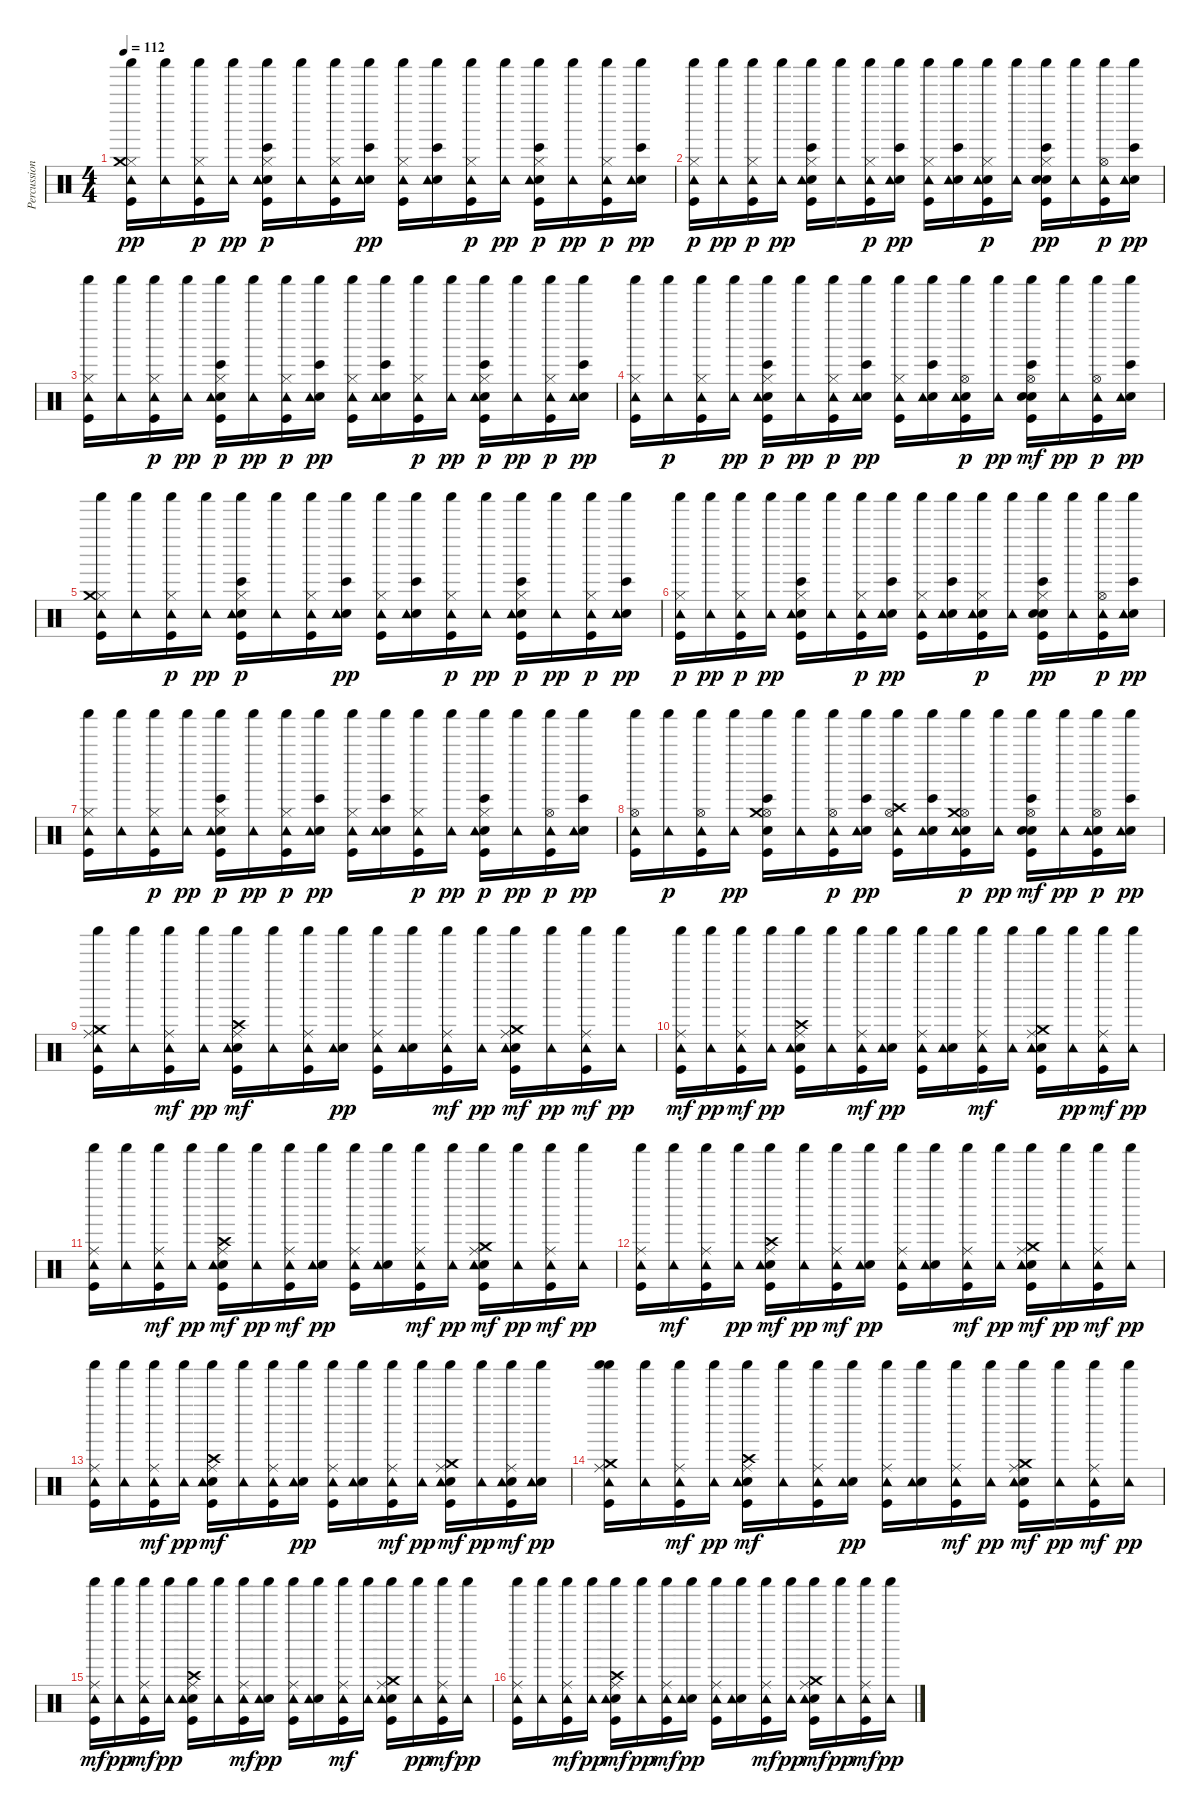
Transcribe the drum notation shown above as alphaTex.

\track ("Percussioni" "Percussion") {instrument percussion}
\staff {score}
\articulation defaults
\ts (4 4)
\tempo 112
\clef neutral
\ks c
("Kick (hit)" "Hi-Hat (closed)" "Tambourine (hit)" "Crash medium (hit)" "Shaker (hit)").16{dy pp} ("Tambourine (hit)" "Shaker (hit)").16 ("Kick (hit)" "Hi-Hat (closed)" "Shaker (hit)" "Tambourine (hit)").16{dy p} ("Tambourine (hit)" "Shaker (hit)").16{dy pp} ("Bongo High (hit)" "Kick (hit)" "Electric Snare (hit)" "Hi-Hat (closed)" "Shaker (hit)" "Tambourine (hit)").16{dy p} ("Shaker (hit)" "Tambourine (hit)").16 ("Kick (hit)" "Hi-Hat (closed)" "Shaker (hit)" "Tambourine (hit)").16 ("Bongo High (hit)" "Electric Snare (hit)" "Tambourine (hit)" "Shaker (hit)").16{dy pp} ("Kick (hit)" "Hi-Hat (closed)" "Tambourine (hit)" "Shaker (hit)").16 ("Bongo High (hit)" "Electric Snare (hit)" "Tambourine (hit)" "Shaker (hit)").16 ("Kick (hit)" "Hi-Hat (closed)" "Shaker (hit)" "Tambourine (hit)").16{dy p} ("Tambourine (hit)" "Shaker (hit)").16{dy pp} ("Bongo High (hit)" "Kick (hit)" "Electric Snare (hit)" "Hi-Hat (closed)" "Shaker (hit)" "Tambourine (hit)").16{dy p} ("Tambourine (hit)" "Shaker (hit)").16{dy pp} ("Kick (hit)" "Hi-Hat (closed)" "Shaker (hit)" "Tambourine (hit)").16{dy p} ("Bongo High (hit)" "Electric Snare (hit)" "Tambourine (hit)" "Shaker (hit)").16{dy pp} |
("Shaker (hit)" "Kick (hit)" "Hi-Hat (closed)" "Tambourine (hit)").16{dy p} ("Tambourine (hit)" "Shaker (hit)").16{dy pp} ("Kick (hit)" "Hi-Hat (closed)" "Shaker (hit)" "Tambourine (hit)").16{dy p} ("Tambourine (hit)" "Shaker (hit)").16{dy pp} ("Bongo High (hit)" "Kick (hit)" "Electric Snare (hit)" "Hi-Hat (closed)" "Tambourine (hit)" "Shaker (hit)").16 ("Tambourine (hit)" "Shaker (hit)").16 ("Kick (hit)" "Hi-Hat (closed)" "Shaker (hit)" "Tambourine (hit)").16{dy p} ("Bongo High (hit)" "Electric Snare (hit)" "Tambourine (hit)" "Shaker (hit)").16{dy pp} ("Kick (hit)" "Hi-Hat (closed)" "Tambourine (hit)" "Shaker (hit)").16 ("Bongo High (hit)" "Electric Snare (hit)" "Tambourine (hit)" "Shaker (hit)").16 ("Kick (hit)" "Hand Clap (hit)" "Hi-Hat (closed)" "Shaker (hit)" "Tambourine (hit)").16{dy p} ("Shaker (hit)" "Tambourine (hit)").16 ("Bongo High (hit)" "Kick (hit)" "Hand Clap (hit)" "Electric Snare (hit)" "Hi-Hat (closed)" "Shaker (hit)").16{dy pp} ("Tambourine (hit)" "Shaker (hit)").16 ("Kick (hit)" "Hi-Hat (open)" "Shaker (hit)" "Tambourine (hit)").16{dy p} ("Bongo High (hit)" "Electric Snare (hit)" "Tambourine (hit)" "Shaker (hit)").16{dy pp} |
("Kick (hit)" "Hi-Hat (closed)" "Tambourine (hit)" "Shaker (hit)").16 ("Tambourine (hit)" "Shaker (hit)").16 ("Kick (hit)" "Hi-Hat (closed)" "Shaker (hit)" "Tambourine (hit)").16{dy p} ("Tambourine (hit)" "Shaker (hit)").16{dy pp} ("Bongo High (hit)" "Kick (hit)" "Electric Snare (hit)" "Hi-Hat (closed)" "Shaker (hit)" "Tambourine (hit)").16{dy p} ("Tambourine (hit)" "Shaker (hit)").16{dy pp} ("Shaker (hit)" "Kick (hit)" "Hi-Hat (closed)" "Tambourine (hit)").16{dy p} ("Bongo High (hit)" "Electric Snare (hit)" "Tambourine (hit)" "Shaker (hit)").16{dy pp} ("Kick (hit)" "Hi-Hat (closed)" "Tambourine (hit)" "Shaker (hit)").16 ("Bongo High (hit)" "Electric Snare (hit)" "Tambourine (hit)" "Shaker (hit)").16 ("Kick (hit)" "Hi-Hat (closed)" "Shaker (hit)" "Tambourine (hit)").16{dy p} ("Tambourine (hit)" "Shaker (hit)").16{dy pp} ("Bongo High (hit)" "Kick (hit)" "Electric Snare (hit)" "Hi-Hat (closed)" "Shaker (hit)" "Tambourine (hit)").16{dy p} ("Tambourine (hit)" "Shaker (hit)").16{dy pp} ("Kick (hit)" "Hi-Hat (closed)" "Shaker (hit)" "Tambourine (hit)").16{dy p} ("Bongo High (hit)" "Electric Snare (hit)" "Tambourine (hit)" "Shaker (hit)").16{dy pp} |
("Kick (hit)" "Hi-Hat (closed)" "Tambourine (hit)" "Shaker (hit)").16 ("Shaker (hit)" "Tambourine (hit)").16{dy p} ("Kick (hit)" "Hi-Hat (closed)" "Shaker (hit)" "Tambourine (hit)").16 ("Tambourine (hit)" "Shaker (hit)").16{dy pp} ("Bongo High (hit)" "Kick (hit)" "Electric Snare (hit)" "Hi-Hat (closed)" "Shaker (hit)" "Tambourine (hit)").16{dy p} ("Tambourine (hit)" "Shaker (hit)").16{dy pp} ("Kick (hit)" "Hi-Hat (closed)" "Shaker (hit)" "Tambourine (hit)").16{dy p} ("Bongo High (hit)" "Electric Snare (hit)" "Tambourine (hit)" "Shaker (hit)").16{dy pp} ("Kick (hit)" "Hi-Hat (closed)" "Tambourine (hit)" "Shaker (hit)").16 ("Bongo High (hit)" "Electric Snare (hit)" "Tambourine (hit)" "Shaker (hit)").16 ("Kick (hit)" "Hand Clap (hit)" "Hi-Hat (open)" "Shaker (hit)" "Tambourine (hit)").16{dy p} ("Tambourine (hit)" "Shaker (hit)").16{dy pp} ("Shaker (hit)" "Bongo High (hit)" "Kick (hit)" "Hand Clap (hit)" "Electric Snare (hit)" "Hi-Hat (open)").16{dy mf} ("Tambourine (hit)" "Shaker (hit)").16{dy pp} ("Kick (hit)" "Hi-Hat (open)" "Shaker (hit)" "Tambourine (hit)").16{dy p} ("Bongo High (hit)" "Electric Snare (hit)" "Tambourine (hit)" "Shaker (hit)").16{dy pp} |
("Kick (hit)" "Hi-Hat (closed)" "Tambourine (hit)" "Crash medium (hit)" "Shaker (hit)").16 ("Tambourine (hit)" "Shaker (hit)").16 ("Kick (hit)" "Hi-Hat (closed)" "Shaker (hit)" "Tambourine (hit)").16{dy p} ("Tambourine (hit)" "Shaker (hit)").16{dy pp} ("Bongo High (hit)" "Kick (hit)" "Electric Snare (hit)" "Hi-Hat (closed)" "Shaker (hit)" "Tambourine (hit)").16{dy p} ("Shaker (hit)" "Tambourine (hit)").16 ("Kick (hit)" "Hi-Hat (closed)" "Shaker (hit)" "Tambourine (hit)").16 ("Bongo High (hit)" "Electric Snare (hit)" "Tambourine (hit)" "Shaker (hit)").16{dy pp} ("Kick (hit)" "Hi-Hat (closed)" "Tambourine (hit)" "Shaker (hit)").16 ("Bongo High (hit)" "Electric Snare (hit)" "Tambourine (hit)" "Shaker (hit)").16 ("Kick (hit)" "Hi-Hat (closed)" "Shaker (hit)" "Tambourine (hit)").16{dy p} ("Tambourine (hit)" "Shaker (hit)").16{dy pp} ("Bongo High (hit)" "Kick (hit)" "Electric Snare (hit)" "Hi-Hat (closed)" "Shaker (hit)" "Tambourine (hit)").16{dy p} ("Tambourine (hit)" "Shaker (hit)").16{dy pp} ("Kick (hit)" "Hi-Hat (closed)" "Shaker (hit)" "Tambourine (hit)").16{dy p} ("Bongo High (hit)" "Electric Snare (hit)" "Tambourine (hit)" "Shaker (hit)").16{dy pp} |
("Shaker (hit)" "Kick (hit)" "Hi-Hat (closed)" "Tambourine (hit)").16{dy p} ("Tambourine (hit)" "Shaker (hit)").16{dy pp} ("Kick (hit)" "Hi-Hat (closed)" "Shaker (hit)" "Tambourine (hit)").16{dy p} ("Tambourine (hit)" "Shaker (hit)").16{dy pp} ("Bongo High (hit)" "Kick (hit)" "Electric Snare (hit)" "Hi-Hat (closed)" "Tambourine (hit)" "Shaker (hit)").16 ("Tambourine (hit)" "Shaker (hit)").16 ("Kick (hit)" "Hi-Hat (closed)" "Shaker (hit)" "Tambourine (hit)").16{dy p} ("Bongo High (hit)" "Electric Snare (hit)" "Tambourine (hit)" "Shaker (hit)").16{dy pp} ("Kick (hit)" "Hi-Hat (closed)" "Tambourine (hit)" "Shaker (hit)").16 ("Bongo High (hit)" "Electric Snare (hit)" "Tambourine (hit)" "Shaker (hit)").16 ("Kick (hit)" "Hand Clap (hit)" "Hi-Hat (closed)" "Shaker (hit)" "Tambourine (hit)").16{dy p} ("Shaker (hit)" "Tambourine (hit)").16 ("Bongo High (hit)" "Kick (hit)" "Hand Clap (hit)" "Electric Snare (hit)" "Hi-Hat (closed)" "Shaker (hit)").16{dy pp} ("Tambourine (hit)" "Shaker (hit)").16 ("Kick (hit)" "Hi-Hat (open)" "Shaker (hit)" "Tambourine (hit)").16{dy p} ("Bongo High (hit)" "Electric Snare (hit)" "Tambourine (hit)" "Shaker (hit)").16{dy pp} |
("Kick (hit)" "Hi-Hat (closed)" "Tambourine (hit)" "Shaker (hit)").16 ("Tambourine (hit)" "Shaker (hit)").16 ("Kick (hit)" "Hi-Hat (closed)" "Shaker (hit)" "Tambourine (hit)").16{dy p} ("Tambourine (hit)" "Shaker (hit)").16{dy pp} ("Bongo High (hit)" "Kick (hit)" "Electric Snare (hit)" "Hi-Hat (closed)" "Shaker (hit)" "Tambourine (hit)").16{dy p} ("Tambourine (hit)" "Shaker (hit)").16{dy pp} ("Shaker (hit)" "Kick (hit)" "Hi-Hat (closed)" "Tambourine (hit)").16{dy p} ("Bongo High (hit)" "Electric Snare (hit)" "Tambourine (hit)" "Shaker (hit)").16{dy pp} ("Kick (hit)" "Hi-Hat (closed)" "Tambourine (hit)" "Shaker (hit)").16 ("Bongo High (hit)" "Electric Snare (hit)" "Tambourine (hit)" "Shaker (hit)").16 ("Kick (hit)" "Hi-Hat (closed)" "Shaker (hit)" "Tambourine (hit)").16{dy p} ("Tambourine (hit)" "Shaker (hit)").16{dy pp} ("Bongo High (hit)" "Kick (hit)" "Electric Snare (hit)" "Hi-Hat (closed)" "Shaker (hit)" "Tambourine (hit)").16{dy p} ("Tambourine (hit)" "Shaker (hit)").16{dy pp} ("Kick (hit)" "Hi-Hat (open)" "Shaker (hit)" "Tambourine (hit)").16{dy p} ("Bongo High (hit)" "Electric Snare (hit)" "Tambourine (hit)" "Shaker (hit)").16{dy pp} |
("Kick (hit)" "Hi-Hat (open)" "Tambourine (hit)" "Shaker (hit)").16 ("Shaker (hit)" "Tambourine (hit)").16{dy p} ("Kick (hit)" "Hi-Hat (open)" "Shaker (hit)" "Tambourine (hit)").16 ("Tambourine (hit)" "Shaker (hit)").16{dy pp} ("Bongo High (hit)" "Kick (hit)" "Electric Snare (hit)" "Hi-Hat (open)" "Crash medium (hit)" "Shaker (hit)").16 ("Tambourine (hit)" "Shaker (hit)").16 ("Kick (hit)" "Hi-Hat (open)" "Shaker (hit)" "Tambourine (hit)").16{dy p} ("Bongo High (hit)" "Electric Snare (hit)" "Tambourine (hit)" "Shaker (hit)").16{dy pp} ("Kick (hit)" "Hi-Hat (open)" "Crash high (hit)" "Tambourine (hit)" "Shaker (hit)").16 ("Bongo High (hit)" "Electric Snare (hit)" "Tambourine (hit)" "Shaker (hit)").16 ("Kick (hit)" "Hand Clap (hit)" "Hi-Hat (open)" "Crash medium (hit)" "Shaker (hit)" "Tambourine (hit)").16{dy p} ("Tambourine (hit)" "Shaker (hit)").16{dy pp} ("Shaker (hit)" "Bongo High (hit)" "Kick (hit)" "Hand Clap (hit)" "Electric Snare (hit)" "Hi-Hat (open)").16{dy mf} ("Tambourine (hit)" "Shaker (hit)").16{dy pp} ("Kick (hit)" "Electric Snare (hit)" "Hi-Hat (open)" "Shaker (hit)" "Tambourine (hit)").16{dy p} ("Bongo High (hit)" "Electric Snare (hit)" "Tambourine (hit)" "Shaker (hit)").16{dy pp} |
("Kick (hit)" "Ride (middle)" "Tambourine (hit)" "Crash medium (hit)" "Shaker (hit)").16 ("Tambourine (hit)" "Shaker (hit)").16 ("Kick (hit)" "Ride (middle)" "Shaker (hit)" "Tambourine (hit)").16{dy mf} ("Tambourine (hit)" "Shaker (hit)").16{dy pp} ("Kick (hit)" "Electric Snare (hit)" "Crash high (hit)" "Ride (middle)" "Shaker (hit)" "Tambourine (hit)").16{dy mf} ("Shaker (hit)" "Tambourine (hit)").16 ("Kick (hit)" "Ride (middle)" "Shaker (hit)" "Tambourine (hit)").16 ("Electric Snare (hit)" "Tambourine (hit)" "Shaker (hit)").16{dy pp} ("Kick (hit)" "Ride (middle)" "Tambourine (hit)" "Shaker (hit)").16 ("Electric Snare (hit)" "Tambourine (hit)" "Shaker (hit)").16 ("Kick (hit)" "Ride (middle)" "Shaker (hit)" "Tambourine (hit)").16{dy mf} ("Tambourine (hit)" "Shaker (hit)").16{dy pp} ("Kick (hit)" "Electric Snare (hit)" "Ride (middle)" "Crash medium (hit)" "Shaker (hit)" "Tambourine (hit)").16{dy mf} ("Tambourine (hit)" "Shaker (hit)").16{dy pp} ("Kick (hit)" "Ride (middle)" "Shaker (hit)" "Tambourine (hit)").16{dy mf} ("Tambourine (hit)" "Shaker (hit)").16{dy pp} |
("Shaker (hit)" "Kick (hit)" "Ride (middle)" "Tambourine (hit)").16{dy mf} ("Tambourine (hit)" "Shaker (hit)").16{dy pp} ("Kick (hit)" "Ride (middle)" "Shaker (hit)" "Tambourine (hit)").16{dy mf} ("Tambourine (hit)" "Shaker (hit)").16{dy pp} ("Kick (hit)" "Electric Snare (hit)" "Crash high (hit)" "Ride (middle)" "Tambourine (hit)" "Shaker (hit)").16 ("Tambourine (hit)" "Shaker (hit)").16 ("Kick (hit)" "Ride (middle)" "Shaker (hit)" "Tambourine (hit)").16{dy mf} ("Electric Snare (hit)" "Tambourine (hit)" "Shaker (hit)").16{dy pp} ("Kick (hit)" "Ride (middle)" "Tambourine (hit)" "Shaker (hit)").16 ("Electric Snare (hit)" "Tambourine (hit)" "Shaker (hit)").16 ("Kick (hit)" "Ride (middle)" "Shaker (hit)" "Tambourine (hit)").16{dy mf} ("Shaker (hit)" "Tambourine (hit)").16 ("Kick (hit)" "Electric Snare (hit)" "Ride (middle)" "Crash medium (hit)" "Shaker (hit)" "Tambourine (hit)").16 ("Tambourine (hit)" "Shaker (hit)").16{dy pp} ("Kick (hit)" "Ride (middle)" "Shaker (hit)" "Tambourine (hit)").16{dy mf} ("Tambourine (hit)" "Shaker (hit)").16{dy pp} |
("Kick (hit)" "Ride (middle)" "Tambourine (hit)" "Shaker (hit)").16 ("Tambourine (hit)" "Shaker (hit)").16 ("Kick (hit)" "Ride (middle)" "Shaker (hit)" "Tambourine (hit)").16{dy mf} ("Tambourine (hit)" "Shaker (hit)").16{dy pp} ("Kick (hit)" "Electric Snare (hit)" "Crash high (hit)" "Ride (middle)" "Shaker (hit)" "Tambourine (hit)").16{dy mf} ("Tambourine (hit)" "Shaker (hit)").16{dy pp} ("Shaker (hit)" "Kick (hit)" "Ride (middle)" "Tambourine (hit)").16{dy mf} ("Electric Snare (hit)" "Tambourine (hit)" "Shaker (hit)").16{dy pp} ("Kick (hit)" "Ride (middle)" "Tambourine (hit)" "Shaker (hit)").16 ("Electric Snare (hit)" "Tambourine (hit)" "Shaker (hit)").16 ("Kick (hit)" "Ride (middle)" "Shaker (hit)" "Tambourine (hit)").16{dy mf} ("Tambourine (hit)" "Shaker (hit)").16{dy pp} ("Kick (hit)" "Electric Snare (hit)" "Ride (middle)" "Crash medium (hit)" "Shaker (hit)" "Tambourine (hit)").16{dy mf} ("Tambourine (hit)" "Shaker (hit)").16{dy pp} ("Kick (hit)" "Ride (middle)" "Shaker (hit)" "Tambourine (hit)").16{dy mf} ("Tambourine (hit)" "Shaker (hit)").16{dy pp} |
("Kick (hit)" "Ride (middle)" "Tambourine (hit)" "Shaker (hit)").16 ("Shaker (hit)" "Tambourine (hit)").16{dy mf} ("Kick (hit)" "Ride (middle)" "Shaker (hit)" "Tambourine (hit)").16 ("Tambourine (hit)" "Shaker (hit)").16{dy pp} ("Kick (hit)" "Electric Snare (hit)" "Crash high (hit)" "Ride (middle)" "Shaker (hit)" "Tambourine (hit)").16{dy mf} ("Tambourine (hit)" "Shaker (hit)").16{dy pp} ("Kick (hit)" "Ride (middle)" "Shaker (hit)" "Tambourine (hit)").16{dy mf} ("Electric Snare (hit)" "Tambourine (hit)" "Shaker (hit)").16{dy pp} ("Kick (hit)" "Ride (middle)" "Tambourine (hit)" "Shaker (hit)").16 ("Electric Snare (hit)" "Tambourine (hit)" "Shaker (hit)").16 ("Kick (hit)" "Ride (middle)" "Shaker (hit)" "Tambourine (hit)").16{dy mf} ("Tambourine (hit)" "Shaker (hit)").16{dy pp} ("Shaker (hit)" "Kick (hit)" "Electric Snare (hit)" "Ride (middle)" "Crash medium (hit)" "Tambourine (hit)").16{dy mf} ("Tambourine (hit)" "Shaker (hit)").16{dy pp} ("Kick (hit)" "Ride (middle)" "Shaker (hit)" "Tambourine (hit)").16{dy mf} ("Tambourine (hit)" "Shaker (hit)").16{dy pp} |
("Kick (hit)" "Ride (middle)" "Tambourine (hit)" "Shaker (hit)").16 ("Tambourine (hit)" "Shaker (hit)").16 ("Kick (hit)" "Ride (middle)" "Shaker (hit)" "Tambourine (hit)").16{dy mf} ("Tambourine (hit)" "Shaker (hit)").16{dy pp} ("Kick (hit)" "Electric Snare (hit)" "Crash high (hit)" "Ride (middle)" "Shaker (hit)" "Tambourine (hit)").16{dy mf} ("Shaker (hit)" "Tambourine (hit)").16 ("Kick (hit)" "Ride (middle)" "Shaker (hit)" "Tambourine (hit)").16 ("Electric Snare (hit)" "Tambourine (hit)" "Shaker (hit)").16{dy pp} ("Kick (hit)" "Ride (middle)" "Tambourine (hit)" "Shaker (hit)").16 ("Electric Snare (hit)" "Tambourine (hit)" "Shaker (hit)").16 ("Kick (hit)" "Ride (middle)" "Shaker (hit)" "Tambourine (hit)").16{dy mf} ("Tambourine (hit)" "Shaker (hit)").16{dy pp} ("Kick (hit)" "Electric Snare (hit)" "Ride (middle)" "Crash medium (hit)" "Shaker (hit)" "Tambourine (hit)").16{dy mf} ("Tambourine (hit)" "Shaker (hit)").16{dy pp} ("Kick (hit)" "Electric Snare (hit)" "Ride (middle)" "Shaker (hit)" "Tambourine (hit)").16{dy mf} ("Electric Snare (hit)" "Tambourine (hit)" "Shaker (hit)").16{dy pp} |
("Shaker (hit)" "Kick (hit)" "Ride (middle)" "Tambourine (hit)" "Crash medium (hit)" "Shaker (hit)").16 ("Tambourine (hit)" "Shaker (hit)").16 ("Kick (hit)" "Ride (middle)" "Shaker (hit)" "Tambourine (hit)").16{dy mf} ("Tambourine (hit)" "Shaker (hit)").16{dy pp} ("Kick (hit)" "Electric Snare (hit)" "Crash high (hit)" "Ride (middle)" "Shaker (hit)" "Tambourine (hit)").16{dy mf} ("Shaker (hit)" "Tambourine (hit)").16 ("Kick (hit)" "Ride (middle)" "Shaker (hit)" "Tambourine (hit)").16 ("Electric Snare (hit)" "Tambourine (hit)" "Shaker (hit)").16{dy pp} ("Kick (hit)" "Ride (middle)" "Tambourine (hit)" "Shaker (hit)").16 ("Electric Snare (hit)" "Tambourine (hit)" "Shaker (hit)").16 ("Kick (hit)" "Ride (middle)" "Shaker (hit)" "Tambourine (hit)").16{dy mf} ("Tambourine (hit)" "Shaker (hit)").16{dy pp} ("Kick (hit)" "Electric Snare (hit)" "Ride (middle)" "Crash medium (hit)" "Shaker (hit)" "Tambourine (hit)").16{dy mf} ("Tambourine (hit)" "Shaker (hit)").16{dy pp} ("Kick (hit)" "Ride (middle)" "Shaker (hit)" "Tambourine (hit)").16{dy mf} ("Tambourine (hit)" "Shaker (hit)").16{dy pp} |
("Shaker (hit)" "Kick (hit)" "Ride (middle)" "Tambourine (hit)").16{dy mf} ("Tambourine (hit)" "Shaker (hit)").16{dy pp} ("Kick (hit)" "Ride (middle)" "Shaker (hit)" "Tambourine (hit)").16{dy mf} ("Tambourine (hit)" "Shaker (hit)").16{dy pp} ("Kick (hit)" "Electric Snare (hit)" "Crash high (hit)" "Ride (middle)" "Tambourine (hit)" "Shaker (hit)").16 ("Tambourine (hit)" "Shaker (hit)").16 ("Kick (hit)" "Ride (middle)" "Shaker (hit)" "Tambourine (hit)").16{dy mf} ("Electric Snare (hit)" "Tambourine (hit)" "Shaker (hit)").16{dy pp} ("Kick (hit)" "Ride (middle)" "Tambourine (hit)" "Shaker (hit)").16 ("Electric Snare (hit)" "Tambourine (hit)" "Shaker (hit)").16 ("Kick (hit)" "Ride (middle)" "Shaker (hit)" "Tambourine (hit)").16{dy mf} ("Shaker (hit)" "Tambourine (hit)").16 ("Kick (hit)" "Electric Snare (hit)" "Ride (middle)" "Crash medium (hit)" "Shaker (hit)" "Tambourine (hit)").16 ("Tambourine (hit)" "Shaker (hit)").16{dy pp} ("Kick (hit)" "Ride (middle)" "Shaker (hit)" "Tambourine (hit)").16{dy mf} ("Tambourine (hit)" "Shaker (hit)").16{dy pp} |
("Kick (hit)" "Ride (middle)" "Tambourine (hit)" "Shaker (hit)").16 ("Tambourine (hit)" "Shaker (hit)").16 ("Kick (hit)" "Ride (middle)" "Shaker (hit)" "Tambourine (hit)").16{dy mf} ("Tambourine (hit)" "Shaker (hit)").16{dy pp} ("Kick (hit)" "Electric Snare (hit)" "Crash high (hit)" "Ride (middle)" "Shaker (hit)" "Tambourine (hit)").16{dy mf} ("Tambourine (hit)" "Shaker (hit)").16{dy pp} ("Shaker (hit)" "Kick (hit)" "Ride (middle)" "Tambourine (hit)").16{dy mf} ("Electric Snare (hit)" "Tambourine (hit)" "Shaker (hit)").16{dy pp} ("Kick (hit)" "Ride (middle)" "Tambourine (hit)" "Shaker (hit)").16 ("Electric Snare (hit)" "Tambourine (hit)" "Shaker (hit)").16 ("Kick (hit)" "Ride (middle)" "Shaker (hit)" "Tambourine (hit)").16{dy mf} ("Tambourine (hit)" "Shaker (hit)").16{dy pp} ("Kick (hit)" "Electric Snare (hit)" "Ride (middle)" "Crash medium (hit)" "Shaker (hit)" "Tambourine (hit)").16{dy mf} ("Tambourine (hit)" "Shaker (hit)").16{dy pp} ("Kick (hit)" "Ride (middle)" "Shaker (hit)" "Tambourine (hit)").16{dy mf} ("Tambourine (hit)" "Shaker (hit)").16{dy pp}
